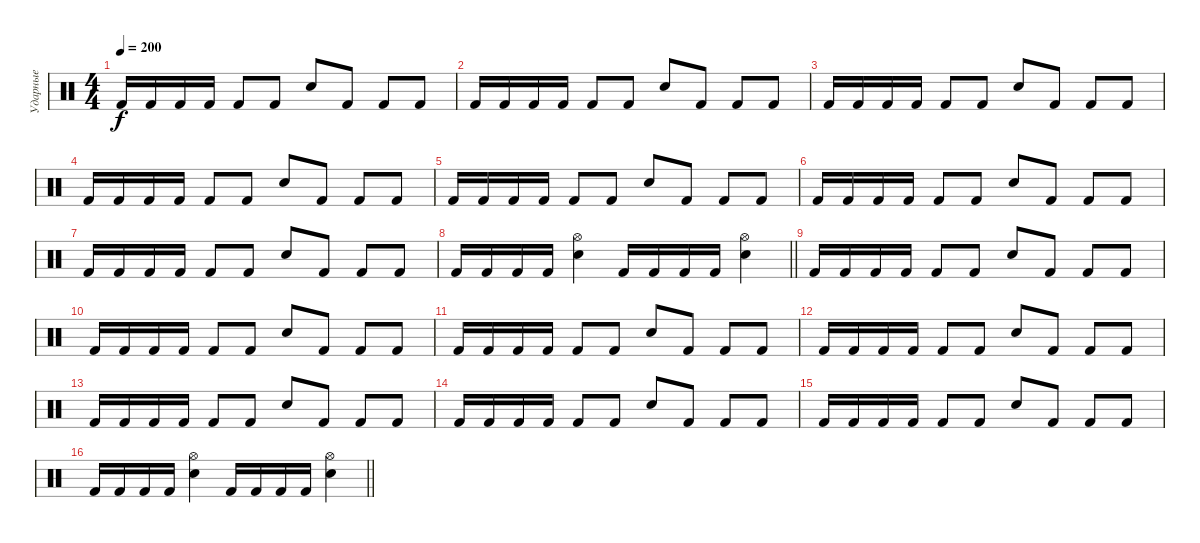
\track ("Ударные" "Ударные") {instrument percussion}
\staff {score}
\articulation defaults
\ts (4 4)
\tempo 200
\clef neutral
\ks c "Kick (hit) 2".16{dy f} "Kick (hit) 2".16 "Kick (hit) 2".16 "Kick (hit) 2".16 "Kick (hit) 2".8 "Kick (hit) 2".8 "Snare (hit) 2".8 "Kick (hit) 2".8 "Kick (hit) 2".8 "Kick (hit) 2".8
|
"Kick (hit) 2".16 "Kick (hit) 2".16 "Kick (hit) 2".16 "Kick (hit) 2".16 "Kick (hit) 2".8 "Kick (hit) 2".8 "Snare (hit) 2".8 "Kick (hit) 2".8 "Kick (hit) 2".8 "Kick (hit) 2".8 |
"Kick (hit) 2".16 "Kick (hit) 2".16 "Kick (hit) 2".16 "Kick (hit) 2".16 "Kick (hit) 2".8 "Kick (hit) 2".8 "Snare (hit) 2".8 "Kick (hit) 2".8 "Kick (hit) 2".8 "Kick (hit) 2".8 |
"Kick (hit) 2".16 "Kick (hit) 2".16 "Kick (hit) 2".16 "Kick (hit) 2".16 "Kick (hit) 2".8 "Kick (hit) 2".8 "Snare (hit) 2".8 "Kick (hit) 2".8 "Kick (hit) 2".8 "Kick (hit) 2".8 |
"Kick (hit) 2".16 "Kick (hit) 2".16 "Kick (hit) 2".16 "Kick (hit) 2".16 "Kick (hit) 2".8 "Kick (hit) 2".8 "Snare (hit) 2".8 "Kick (hit) 2".8 "Kick (hit) 2".8 "Kick (hit) 2".8 |
"Kick (hit) 2".16 "Kick (hit) 2".16 "Kick (hit) 2".16 "Kick (hit) 2".16 "Kick (hit) 2".8 "Kick (hit) 2".8 "Snare (hit) 2".8 "Kick (hit) 2".8 "Kick (hit) 2".8 "Kick (hit) 2".8 |
"Kick (hit) 2".16 "Kick (hit) 2".16 "Kick (hit) 2".16 "Kick (hit) 2".16 "Kick (hit) 2".8 "Kick (hit) 2".8 "Snare (hit) 2".8 "Kick (hit) 2".8 "Kick (hit) 2".8 "Kick (hit) 2".8 |
\barLineRight lightlight "Kick (hit) 2".16 "Kick (hit) 2".16 "Kick (hit) 2".16 "Kick (hit) 2".16
("Hi-Hat (open)" "Snare (hit) 2").4 "Kick (hit) 2".16 "Kick (hit) 2".16 "Kick (hit) 2".16 "Kick (hit) 2".16 ("Hi-Hat (open)" "Snare (hit) 2").4 |
"Kick (hit) 2".16 "Kick (hit) 2".16 "Kick (hit) 2".16 "Kick (hit) 2".16 "Kick (hit) 2".8 "Kick (hit) 2".8 "Snare (hit) 2".8 "Kick (hit) 2".8 "Kick (hit) 2".8 "Kick (hit) 2".8 |
"Kick (hit) 2".16 "Kick (hit) 2".16 "Kick (hit) 2".16 "Kick (hit) 2".16 "Kick (hit) 2".8 "Kick (hit) 2".8 "Snare (hit) 2".8 "Kick (hit) 2".8 "Kick (hit) 2".8 "Kick (hit) 2".8 |
"Kick (hit) 2".16 "Kick (hit) 2".16 "Kick (hit) 2".16 "Kick (hit) 2".16 "Kick (hit) 2".8 "Kick (hit) 2".8 "Snare (hit) 2".8 "Kick (hit) 2".8 "Kick (hit) 2".8 "Kick (hit) 2".8 |
"Kick (hit) 2".16 "Kick (hit) 2".16 "Kick (hit) 2".16 "Kick (hit) 2".16 "Kick (hit) 2".8 "Kick (hit) 2".8 "Snare (hit) 2".8 "Kick (hit) 2".8 "Kick (hit) 2".8 "Kick (hit) 2".8 |
"Kick (hit) 2".16 "Kick (hit) 2".16 "Kick (hit) 2".16 "Kick (hit) 2".16 "Kick (hit) 2".8 "Kick (hit) 2".8 "Snare (hit) 2".8 "Kick (hit) 2".8 "Kick (hit) 2".8 "Kick (hit) 2".8 |
"Kick (hit) 2".16 "Kick (hit) 2".16 "Kick (hit) 2".16 "Kick (hit) 2".16 "Kick (hit) 2".8 "Kick (hit) 2".8 "Snare (hit) 2".8 "Kick (hit) 2".8 "Kick (hit) 2".8 "Kick (hit) 2".8 |
"Kick (hit) 2".16 "Kick (hit) 2".16 "Kick (hit) 2".16 "Kick (hit) 2".16 "Kick (hit) 2".8 "Kick (hit) 2".8 "Snare (hit) 2".8 "Kick (hit) 2".8 "Kick (hit) 2".8 "Kick (hit) 2".8 |
\barLineRight lightlight "Kick (hit) 2".16 "Kick (hit) 2".16 "Kick (hit) 2".16 "Kick (hit) 2".16
("Hi-Hat (open)" "Snare (hit) 2").4 "Kick (hit) 2".16 "Kick (hit) 2".16 "Kick (hit) 2".16 "Kick (hit) 2".16 ("Hi-Hat (open)" "Snare (hit) 2").4
